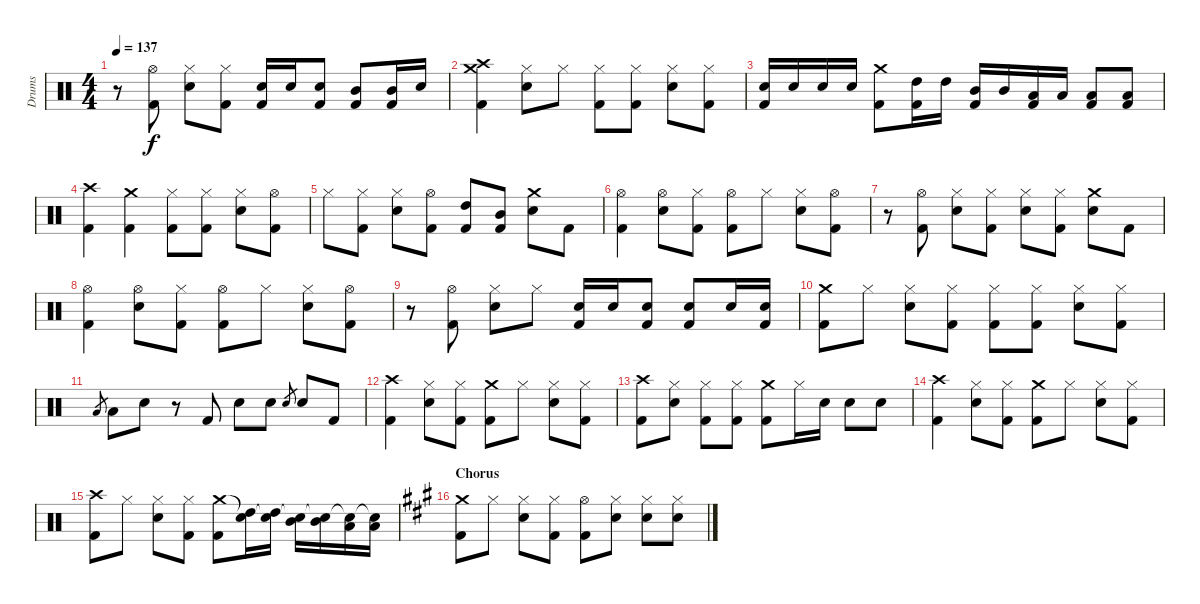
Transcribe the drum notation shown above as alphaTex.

\track ("Drums" "Drums") {instrument percussion}
\staff {score}
\articulation defaults
\ts (4 4)
\tempo 137
\clef neutral
\ks c
r.8{dy f} ("Hi-Hat (open)" "Kick (hit) 2").8 ("Hi-Hat (closed)" "Snare (hit) 2").8 ("Hi-Hat (closed)" "Kick (hit) 2").8 ("Snare (hit) 2" "Kick (hit) 2").16 "Snare (hit) 2".16 ("Snare (hit) 2" "Kick (hit) 2").8 ("Mid Tom (hit)" "Kick (hit) 2").8 ("Mid Tom (hit)" "Kick (hit) 2").16 "Snare (hit) 2".16 |
("Crash high (hit)" "Crash medium (hit)" "Kick (hit) 2").4 ("Hi-Hat (closed)" "Snare (hit) 2").8 "Hi-Hat (closed)".8 ("Hi-Hat (closed)" "Kick (hit) 2").8 ("Hi-Hat (closed)" "Kick (hit) 2").8 ("Hi-Hat (closed)" "Snare (hit) 2").8 ("Hi-Hat (closed)" "Kick (hit) 2").8 |
("Snare (hit) 2" "Kick (hit) 2").16 "Snare (hit) 2".16 "Snare (hit) 2".16 "Snare (hit) 2".16 ("Crash medium (hit)" "Kick (hit) 2").8 ("High Tom (hit)" "Kick (hit) 2").16 "High Tom (hit)".16 ("Mid Tom (hit)" "Kick (hit) 2").16 "Mid Tom (hit)".16 ("Low Tom (hit)" "Kick (hit) 2").16 "Low Tom (hit)".16 ("Low Tom (hit)" "Kick (hit) 2").8 ("Low Tom (hit)" "Kick (hit) 2").8 |
("Crash high (hit)" "Kick (hit) 2").4 ("Crash medium (hit)" "Kick (hit) 2").4 ("Hi-Hat (closed)" "Kick (hit) 2").8 ("Hi-Hat (closed)" "Kick (hit) 2").8 ("Hi-Hat (closed)" "Snare (hit) 2").8 ("Hi-Hat (open)" "Kick (hit) 2").8 |
"Hi-Hat (closed)".8 ("Hi-Hat (closed)" "Kick (hit) 2").8 ("Hi-Hat (closed)" "Snare (hit) 2").8 ("Hi-Hat (open)" "Kick (hit) 2").8 ("High Tom (hit)" "Kick (hit) 2").8 ("Mid Tom (hit)" "Kick (hit) 2").8 ("Crash medium (hit)" "Snare (hit) 2").8 "Kick (hit) 2".8 |
("Hi-Hat (open)" "Kick (hit) 2").4 ("Hi-Hat (open)" "Snare (hit) 2").8 ("Hi-Hat (closed)" "Kick (hit) 2").8 ("Hi-Hat (open)" "Kick (hit) 2").8 "Hi-Hat (closed)".8 ("Hi-Hat (closed)" "Snare (hit) 2").8 ("Hi-Hat (open)" "Kick (hit) 2").8 |
r.8 ("Hi-Hat (open)" "Kick (hit) 2").8 ("Hi-Hat (closed)" "Snare (hit) 2").8 ("Hi-Hat (closed)" "Kick (hit) 2").8 ("Hi-Hat (closed)" "Snare (hit) 2").8 ("Hi-Hat (closed)" "Kick (hit) 2").8 ("Crash medium (hit)" "Snare (hit) 2").8 "Kick (hit) 2".8 |
("Hi-Hat (open)" "Kick (hit) 2").4 ("Hi-Hat (open)" "Snare (hit) 2").8 ("Hi-Hat (closed)" "Kick (hit) 2").8 ("Hi-Hat (open)" "Kick (hit) 2").8 "Hi-Hat (closed)".8 ("Hi-Hat (closed)" "Snare (hit) 2").8 ("Hi-Hat (open)" "Kick (hit) 2").8 |
r.8 ("Hi-Hat (open)" "Kick (hit) 2").8 ("Hi-Hat (closed)" "Snare (hit) 2").8 "Hi-Hat (closed)".8 ("Snare (hit) 2" "Kick (hit) 2").16 "Snare (hit) 2".16 ("Snare (hit) 2" "Kick (hit) 2").8 ("Snare (hit) 2" "Kick (hit) 2").8 "Snare (hit) 2".16 ("Snare (hit) 2" "Kick (hit) 2").16 |
("Crash medium (hit)" "Kick (hit) 2").8 "Hi-Hat (closed)".8 ("Hi-Hat (closed)" "Snare (hit) 2").8 ("Hi-Hat (closed)" "Kick (hit) 2").8 ("Hi-Hat (closed)" "Kick (hit) 2").8 ("Hi-Hat (closed)" "Kick (hit) 2").8 ("Hi-Hat (closed)" "Snare (hit) 2").8 ("Hi-Hat (closed)" "Kick (hit) 2").8 |
"Low Tom (hit)".8{gr} "Low Tom (hit)".8 "Snare (hit) 2".8 r.8 "Kick (hit) 2".8 "Snare (hit) 2".8 "Snare (hit) 2".8 "Snare (hit) 2".8{gr} "Snare (hit) 2".8 "Kick (hit) 2".8 |
("Crash high (hit)" "Kick (hit) 2").4 ("Hi-Hat (closed)" "Snare (hit) 2").8 ("Hi-Hat (closed)" "Kick (hit) 2").8 ("Crash medium (hit)" "Kick (hit) 2").8 "Hi-Hat (closed)".8 ("Hi-Hat (closed)" "Snare (hit) 2").8 ("Hi-Hat (closed)" "Kick (hit) 2").8 |
("Crash high (hit)" "Kick (hit) 2").8 ("Hi-Hat (closed)" "Snare (hit) 2").8 ("Hi-Hat (closed)" "Kick (hit) 2").8 ("Hi-Hat (closed)" "Kick (hit) 2").8 ("Crash medium (hit)" "Kick (hit) 2").8 "Hi-Hat (closed)".16 "Snare (hit) 2".16 "Snare (hit) 2".8 "Snare (hit) 2".8 |
("Crash high (hit)" "Kick (hit) 2").4 ("Hi-Hat (closed)" "Snare (hit) 2").8 ("Hi-Hat (closed)" "Kick (hit) 2").8 ("Crash medium (hit)" "Kick (hit) 2").8 "Hi-Hat (closed)".8 ("Hi-Hat (closed)" "Snare (hit) 2").8 ("Hi-Hat (closed)" "Kick (hit) 2").8 |
("Crash high (hit)" "Kick (hit) 2").8 "Hi-Hat (closed)".8 ("Hi-Hat (closed)" "Snare (hit) 2").8 ("Hi-Hat (closed)" "Kick (hit) 2").8 ("Crash medium (hit)" "Kick (hit) 2").8 ("Snare (hit)"{t} "High Tom (hit)").16 ("Snare (hit)"{t} "High Tom (hit)").16 ("Snare (hit)"{t} "Mid Tom (hit)").16 ("Snare (hit)"{t} "Mid Tom (hit)").16 ("Snare (hit)"{t} "Low Tom (hit)").16 ("Snare (hit)"{t} "Low Tom (hit)").16 |
\section ("" "Chorus")
\ks a
("Crash medium (hit)" "Kick (hit) 2").8 "Hi-Hat (closed)".8 ("Hi-Hat (closed)" "Snare (hit) 2").8 ("Hi-Hat (closed)" "Kick (hit) 2").8 ("Hi-Hat (open)" "Kick (hit) 2").8 ("Hi-Hat (closed)" "Snare (hit) 2").8 ("Hi-Hat (closed)" "Snare (hit) 2").8 ("Hi-Hat (closed)" "Snare (hit) 2").8
